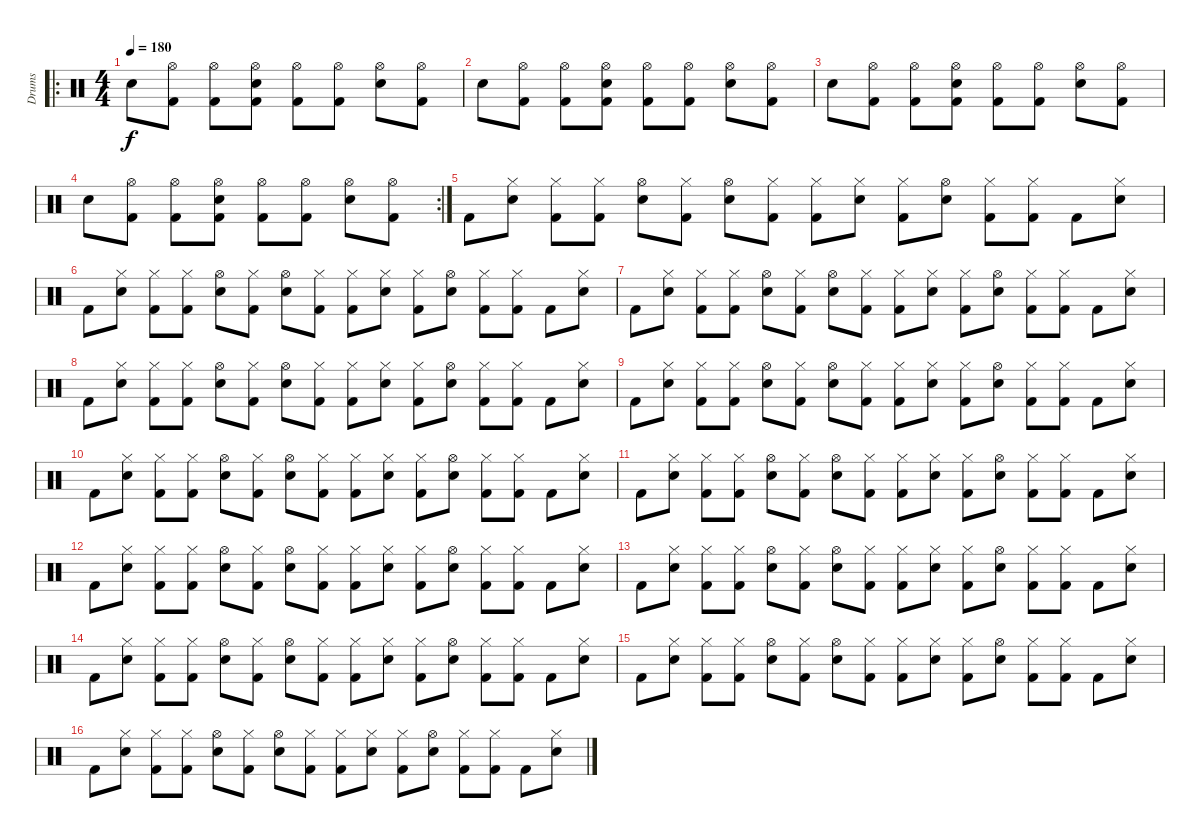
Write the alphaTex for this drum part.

\track ("Drums" "Drums") {instrument percussion}
\staff {score}
\articulation defaults
\ro
\ts (4 4)
\tempo 180
\clef neutral
\ks c "Electric Snare (hit)".8{dy f}
("Kick (hit) 2" "Hi-Hat (open)").8 ("Kick (hit) 2" "Hi-Hat (open)").8 ("Kick (hit) 2" "Electric Snare (hit)" "Hi-Hat (open)").8 ("Kick (hit) 2" "Hi-Hat (open)").8 ("Kick (hit) 2" "Hi-Hat (open)").8 ("Electric Snare (hit)" "Hi-Hat (open)").8 ("Kick (hit) 2" "Hi-Hat (open)").8 |
"Electric Snare (hit)".8 ("Kick (hit) 2" "Hi-Hat (open)").8 ("Kick (hit) 2" "Hi-Hat (open)").8 ("Kick (hit) 2" "Electric Snare (hit)" "Hi-Hat (open)").8 ("Kick (hit) 2" "Hi-Hat (open)").8 ("Kick (hit) 2" "Hi-Hat (open)").8 ("Electric Snare (hit)" "Hi-Hat (open)").8 ("Kick (hit) 2" "Hi-Hat (open)").8 |
"Electric Snare (hit)".8 ("Kick (hit) 2" "Hi-Hat (open)").8 ("Kick (hit) 2" "Hi-Hat (open)").8 ("Kick (hit) 2" "Electric Snare (hit)" "Hi-Hat (open)").8 ("Kick (hit) 2" "Hi-Hat (open)").8 ("Kick (hit) 2" "Hi-Hat (open)").8 ("Electric Snare (hit)" "Hi-Hat (open)").8 ("Kick (hit) 2" "Hi-Hat (open)").8 |
\rc 2 "Electric Snare (hit)".8
("Kick (hit) 2" "Hi-Hat (open)").8 ("Kick (hit) 2" "Hi-Hat (open)").8 ("Kick (hit) 2" "Electric Snare (hit)" "Hi-Hat (open)").8 ("Kick (hit) 2" "Hi-Hat (open)").8 ("Kick (hit) 2" "Hi-Hat (open)").8 ("Electric Snare (hit)" "Hi-Hat (open)").8 ("Kick (hit) 2" "Hi-Hat (open)").8 |
"Kick (hit) 2".8 ("Electric Snare (hit)" "Hi-Hat (closed)").8 ("Kick (hit) 2" "Hi-Hat (closed)").8 ("Kick (hit) 2" "Hi-Hat (closed)").8 ("Electric Snare (hit)" "Hi-Hat (open)").8 ("Kick (hit) 2" "Hi-Hat (closed)").8 ("Electric Snare (hit)" "Hi-Hat (open)").8 ("Kick (hit) 2" "Hi-Hat (closed)").8 ("Kick (hit) 2" "Hi-Hat (closed)").8 ("Electric Snare (hit)" "Hi-Hat (closed)").8 ("Kick (hit) 2" "Hi-Hat (closed)").8 ("Electric Snare (hit)" "Hi-Hat (open)").8 ("Kick (hit) 2" "Hi-Hat (closed)").8 ("Kick (hit) 2" "Hi-Hat (closed)").8 "Kick (hit) 2".8 ("Electric Snare (hit)" "Hi-Hat (closed)").8 |
"Kick (hit) 2".8 ("Electric Snare (hit)" "Hi-Hat (closed)").8 ("Kick (hit) 2" "Hi-Hat (closed)").8 ("Kick (hit) 2" "Hi-Hat (closed)").8 ("Electric Snare (hit)" "Hi-Hat (open)").8 ("Kick (hit) 2" "Hi-Hat (closed)").8 ("Electric Snare (hit)" "Hi-Hat (open)").8 ("Kick (hit) 2" "Hi-Hat (closed)").8 ("Kick (hit) 2" "Hi-Hat (closed)").8 ("Electric Snare (hit)" "Hi-Hat (closed)").8 ("Kick (hit) 2" "Hi-Hat (closed)").8 ("Electric Snare (hit)" "Hi-Hat (open)").8 ("Kick (hit) 2" "Hi-Hat (closed)").8 ("Kick (hit) 2" "Hi-Hat (closed)").8 "Kick (hit) 2".8 ("Electric Snare (hit)" "Hi-Hat (closed)").8 |
"Kick (hit) 2".8 ("Electric Snare (hit)" "Hi-Hat (closed)").8 ("Kick (hit) 2" "Hi-Hat (closed)").8 ("Kick (hit) 2" "Hi-Hat (closed)").8 ("Electric Snare (hit)" "Hi-Hat (open)").8 ("Kick (hit) 2" "Hi-Hat (closed)").8 ("Electric Snare (hit)" "Hi-Hat (open)").8 ("Kick (hit) 2" "Hi-Hat (closed)").8 ("Kick (hit) 2" "Hi-Hat (closed)").8 ("Electric Snare (hit)" "Hi-Hat (closed)").8 ("Kick (hit) 2" "Hi-Hat (closed)").8 ("Electric Snare (hit)" "Hi-Hat (open)").8 ("Kick (hit) 2" "Hi-Hat (closed)").8 ("Kick (hit) 2" "Hi-Hat (closed)").8 "Kick (hit) 2".8 ("Electric Snare (hit)" "Hi-Hat (closed)").8 |
"Kick (hit) 2".8 ("Electric Snare (hit)" "Hi-Hat (closed)").8 ("Kick (hit) 2" "Hi-Hat (closed)").8 ("Kick (hit) 2" "Hi-Hat (closed)").8 ("Electric Snare (hit)" "Hi-Hat (open)").8 ("Kick (hit) 2" "Hi-Hat (closed)").8 ("Electric Snare (hit)" "Hi-Hat (open)").8 ("Kick (hit) 2" "Hi-Hat (closed)").8 ("Kick (hit) 2" "Hi-Hat (closed)").8 ("Electric Snare (hit)" "Hi-Hat (closed)").8 ("Kick (hit) 2" "Hi-Hat (closed)").8 ("Electric Snare (hit)" "Hi-Hat (open)").8 ("Kick (hit) 2" "Hi-Hat (closed)").8 ("Kick (hit) 2" "Hi-Hat (closed)").8 "Kick (hit) 2".8 ("Electric Snare (hit)" "Hi-Hat (closed)").8 |
"Kick (hit) 2".8 ("Electric Snare (hit)" "Hi-Hat (closed)").8 ("Kick (hit) 2" "Hi-Hat (closed)").8 ("Kick (hit) 2" "Hi-Hat (closed)").8 ("Electric Snare (hit)" "Hi-Hat (open)").8 ("Kick (hit) 2" "Hi-Hat (closed)").8 ("Electric Snare (hit)" "Hi-Hat (open)").8 ("Kick (hit) 2" "Hi-Hat (closed)").8 ("Kick (hit) 2" "Hi-Hat (closed)").8 ("Electric Snare (hit)" "Hi-Hat (closed)").8 ("Kick (hit) 2" "Hi-Hat (closed)").8 ("Electric Snare (hit)" "Hi-Hat (open)").8 ("Kick (hit) 2" "Hi-Hat (closed)").8 ("Kick (hit) 2" "Hi-Hat (closed)").8 "Kick (hit) 2".8 ("Electric Snare (hit)" "Hi-Hat (closed)").8 |
"Kick (hit) 2".8 ("Electric Snare (hit)" "Hi-Hat (closed)").8 ("Kick (hit) 2" "Hi-Hat (closed)").8 ("Kick (hit) 2" "Hi-Hat (closed)").8 ("Electric Snare (hit)" "Hi-Hat (open)").8 ("Kick (hit) 2" "Hi-Hat (closed)").8 ("Electric Snare (hit)" "Hi-Hat (open)").8 ("Kick (hit) 2" "Hi-Hat (closed)").8 ("Kick (hit) 2" "Hi-Hat (closed)").8 ("Electric Snare (hit)" "Hi-Hat (closed)").8 ("Kick (hit) 2" "Hi-Hat (closed)").8 ("Electric Snare (hit)" "Hi-Hat (open)").8 ("Kick (hit) 2" "Hi-Hat (closed)").8 ("Kick (hit) 2" "Hi-Hat (closed)").8 "Kick (hit) 2".8 ("Electric Snare (hit)" "Hi-Hat (closed)").8 |
"Kick (hit) 2".8 ("Electric Snare (hit)" "Hi-Hat (closed)").8 ("Kick (hit) 2" "Hi-Hat (closed)").8 ("Kick (hit) 2" "Hi-Hat (closed)").8 ("Electric Snare (hit)" "Hi-Hat (open)").8 ("Kick (hit) 2" "Hi-Hat (closed)").8 ("Electric Snare (hit)" "Hi-Hat (open)").8 ("Kick (hit) 2" "Hi-Hat (closed)").8 ("Kick (hit) 2" "Hi-Hat (closed)").8 ("Electric Snare (hit)" "Hi-Hat (closed)").8 ("Kick (hit) 2" "Hi-Hat (closed)").8 ("Electric Snare (hit)" "Hi-Hat (open)").8 ("Kick (hit) 2" "Hi-Hat (closed)").8 ("Kick (hit) 2" "Hi-Hat (closed)").8 "Kick (hit) 2".8 ("Electric Snare (hit)" "Hi-Hat (closed)").8 |
"Kick (hit) 2".8 ("Electric Snare (hit)" "Hi-Hat (closed)").8 ("Kick (hit) 2" "Hi-Hat (closed)").8 ("Kick (hit) 2" "Hi-Hat (closed)").8 ("Electric Snare (hit)" "Hi-Hat (open)").8 ("Kick (hit) 2" "Hi-Hat (closed)").8 ("Electric Snare (hit)" "Hi-Hat (open)").8 ("Kick (hit) 2" "Hi-Hat (closed)").8 ("Kick (hit) 2" "Hi-Hat (closed)").8 ("Electric Snare (hit)" "Hi-Hat (closed)").8 ("Kick (hit) 2" "Hi-Hat (closed)").8 ("Electric Snare (hit)" "Hi-Hat (open)").8 ("Kick (hit) 2" "Hi-Hat (closed)").8 ("Kick (hit) 2" "Hi-Hat (closed)").8 "Kick (hit) 2".8 ("Electric Snare (hit)" "Hi-Hat (closed)").8 |
"Kick (hit) 2".8 ("Electric Snare (hit)" "Hi-Hat (closed)").8 ("Kick (hit) 2" "Hi-Hat (closed)").8 ("Kick (hit) 2" "Hi-Hat (closed)").8 ("Electric Snare (hit)" "Hi-Hat (open)").8 ("Kick (hit) 2" "Hi-Hat (closed)").8 ("Electric Snare (hit)" "Hi-Hat (open)").8 ("Kick (hit) 2" "Hi-Hat (closed)").8 ("Kick (hit) 2" "Hi-Hat (closed)").8 ("Electric Snare (hit)" "Hi-Hat (closed)").8 ("Kick (hit) 2" "Hi-Hat (closed)").8 ("Electric Snare (hit)" "Hi-Hat (open)").8 ("Kick (hit) 2" "Hi-Hat (closed)").8 ("Kick (hit) 2" "Hi-Hat (closed)").8 "Kick (hit) 2".8 ("Electric Snare (hit)" "Hi-Hat (closed)").8 |
"Kick (hit) 2".8 ("Electric Snare (hit)" "Hi-Hat (closed)").8 ("Kick (hit) 2" "Hi-Hat (closed)").8 ("Kick (hit) 2" "Hi-Hat (closed)").8 ("Electric Snare (hit)" "Hi-Hat (open)").8 ("Kick (hit) 2" "Hi-Hat (closed)").8 ("Electric Snare (hit)" "Hi-Hat (open)").8 ("Kick (hit) 2" "Hi-Hat (closed)").8 ("Kick (hit) 2" "Hi-Hat (closed)").8 ("Electric Snare (hit)" "Hi-Hat (closed)").8 ("Kick (hit) 2" "Hi-Hat (closed)").8 ("Electric Snare (hit)" "Hi-Hat (open)").8 ("Kick (hit) 2" "Hi-Hat (closed)").8 ("Kick (hit) 2" "Hi-Hat (closed)").8 "Kick (hit) 2".8 ("Electric Snare (hit)" "Hi-Hat (closed)").8 |
"Kick (hit) 2".8 ("Electric Snare (hit)" "Hi-Hat (closed)").8 ("Kick (hit) 2" "Hi-Hat (closed)").8 ("Kick (hit) 2" "Hi-Hat (closed)").8 ("Electric Snare (hit)" "Hi-Hat (open)").8 ("Kick (hit) 2" "Hi-Hat (closed)").8 ("Electric Snare (hit)" "Hi-Hat (open)").8 ("Kick (hit) 2" "Hi-Hat (closed)").8 ("Kick (hit) 2" "Hi-Hat (closed)").8 ("Electric Snare (hit)" "Hi-Hat (closed)").8 ("Kick (hit) 2" "Hi-Hat (closed)").8 ("Electric Snare (hit)" "Hi-Hat (open)").8 ("Kick (hit) 2" "Hi-Hat (closed)").8 ("Kick (hit) 2" "Hi-Hat (closed)").8 "Kick (hit) 2".8 ("Electric Snare (hit)" "Hi-Hat (closed)").8 |
"Kick (hit) 2".8 ("Electric Snare (hit)" "Hi-Hat (closed)").8 ("Kick (hit) 2" "Hi-Hat (closed)").8 ("Kick (hit) 2" "Hi-Hat (closed)").8 ("Electric Snare (hit)" "Hi-Hat (open)").8 ("Kick (hit) 2" "Hi-Hat (closed)").8 ("Electric Snare (hit)" "Hi-Hat (open)").8 ("Kick (hit) 2" "Hi-Hat (closed)").8 ("Kick (hit) 2" "Hi-Hat (closed)").8 ("Electric Snare (hit)" "Hi-Hat (closed)").8 ("Kick (hit) 2" "Hi-Hat (closed)").8 ("Electric Snare (hit)" "Hi-Hat (open)").8 ("Kick (hit) 2" "Hi-Hat (closed)").8 ("Kick (hit) 2" "Hi-Hat (closed)").8 "Kick (hit) 2".8 ("Electric Snare (hit)" "Hi-Hat (closed)").8
